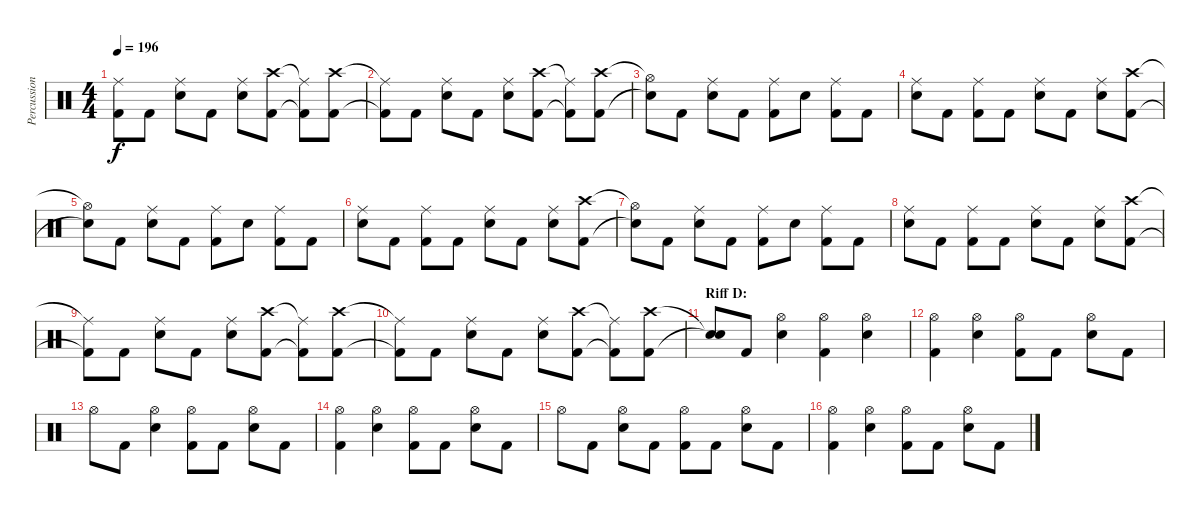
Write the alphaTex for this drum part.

\track ("Percussion" "Percussion") {instrument percussion}
\staff {score}
\articulation defaults
\ts (4 4)
\tempo 196
\clef neutral
\ks c
("Ride (middle)"{t} "Kick (hit) 2"{t}).8{dy f} "Kick (hit) 2".8 ("Ride (middle)" "Snare (hit) 2").8 "Kick (hit) 2".8 ("Ride (middle)" "Snare (hit) 2").8 ("Crash high (hit)" "Kick (hit) 2").8 ("Ride (middle)"{t} "Kick (hit) 2"{t}).8 ("Crash high (hit)" "Kick (hit) 2").8 |
("Ride (middle)"{t} "Kick (hit) 2"{t}).8 "Kick (hit) 2".8 ("Ride (middle)" "Snare (hit) 2").8 "Kick (hit) 2".8 ("Ride (middle)" "Snare (hit) 2").8 ("Crash high (hit)" "Kick (hit) 2").8 ("Ride (middle)"{t} "Kick (hit) 2"{t}).8 ("Crash high (hit)" "Kick (hit) 2").8 |
("Hi-Hat (open)"{t} "Snare (hit)"{t}).8 "Kick (hit) 2".8 ("Ride (middle)" "Snare (hit) 2").8 "Kick (hit) 2".8 ("Ride (middle)" "Kick (hit) 2").8 "Snare (hit) 2".8 ("Ride (middle)" "Kick (hit) 2").8 "Kick (hit) 2".8 |
("Ride (middle)" "Snare (hit) 2").8 "Kick (hit) 2".8 ("Ride (middle)" "Kick (hit) 2").8 "Kick (hit) 2".8 ("Ride (middle)" "Snare (hit) 2").8 "Kick (hit) 2".8 ("Ride (middle)" "Snare (hit) 2").8 ("Crash high (hit)" "Kick (hit) 2").8 |
("Hi-Hat (open)"{t} "Snare (hit)"{t}).8 "Kick (hit) 2".8 ("Ride (middle)" "Snare (hit) 2").8 "Kick (hit) 2".8 ("Ride (middle)" "Kick (hit) 2").8 "Snare (hit) 2".8 ("Ride (middle)" "Kick (hit) 2").8 "Kick (hit) 2".8 |
("Ride (middle)" "Snare (hit) 2").8 "Kick (hit) 2".8 ("Ride (middle)" "Kick (hit) 2").8 "Kick (hit) 2".8 ("Ride (middle)" "Snare (hit) 2").8 "Kick (hit) 2".8 ("Ride (middle)" "Snare (hit) 2").8 ("Crash high (hit)" "Kick (hit) 2").8 |
("Hi-Hat (open)"{t} "Snare (hit)"{t}).8 "Kick (hit) 2".8 ("Ride (middle)" "Snare (hit) 2").8 "Kick (hit) 2".8 ("Ride (middle)" "Kick (hit) 2").8 "Snare (hit) 2".8 ("Ride (middle)" "Kick (hit) 2").8 "Kick (hit) 2".8 |
("Ride (middle)" "Snare (hit) 2").8 "Kick (hit) 2".8 ("Ride (middle)" "Kick (hit) 2").8 "Kick (hit) 2".8 ("Ride (middle)" "Snare (hit) 2").8 "Kick (hit) 2".8 ("Ride (middle)" "Snare (hit) 2").8 ("Crash high (hit)" "Kick (hit) 2").8 |
("Ride (middle)"{t} "Kick (hit) 2"{t}).8 "Kick (hit) 2".8 ("Ride (middle)" "Snare (hit) 2").8 "Kick (hit) 2".8 ("Ride (middle)" "Snare (hit) 2").8 ("Crash high (hit)" "Kick (hit) 2").8 ("Ride (middle)"{t} "Kick (hit) 2"{t}).8 ("Crash high (hit)" "Kick (hit) 2").8 |
("Ride (middle)"{t} "Kick (hit) 2"{t}).8 "Kick (hit) 2".8 ("Ride (middle)" "Snare (hit) 2").8 "Kick (hit) 2".8 ("Ride (middle)" "Snare (hit) 2").8 ("Crash high (hit)" "Kick (hit) 2").8 ("Ride (middle)"{t} "Kick (hit) 2"{t}).8 ("Crash high (hit)" "Kick (hit) 2").8 |
\section ("" "Riff D:")
("Snare (hit)"{t} "Snare (hit)"{t}).8 "Kick (hit) 2".8 ("Hi-Hat (open)" "Snare (hit) 2").4 ("Hi-Hat (open)" "Kick (hit) 2").4 ("Hi-Hat (open)" "Snare (hit) 2").4 |
("Hi-Hat (open)" "Kick (hit) 2").4 ("Hi-Hat (open)" "Snare (hit) 2").4 ("Hi-Hat (open)" "Kick (hit) 2").8 "Kick (hit) 2".8 ("Hi-Hat (open)" "Snare (hit) 2").8 "Kick (hit) 2".8 |
"Hi-Hat (open)".8 "Kick (hit) 2".8 ("Hi-Hat (open)" "Snare (hit) 2").4 ("Hi-Hat (open)" "Kick (hit) 2").8 "Kick (hit) 2".8 ("Hi-Hat (open)" "Snare (hit) 2").8 "Kick (hit) 2".8 |
("Hi-Hat (open)" "Kick (hit) 2").4 ("Hi-Hat (open)" "Snare (hit) 2").4 ("Hi-Hat (open)" "Kick (hit) 2").8 "Kick (hit) 2".8 ("Hi-Hat (open)" "Snare (hit) 2").8 "Kick (hit) 2".8 |
"Hi-Hat (open)".8 "Kick (hit) 2".8 ("Hi-Hat (open)" "Snare (hit) 2").8 "Kick (hit) 2".8 ("Hi-Hat (open)" "Kick (hit) 2").8 "Kick (hit) 2".8 ("Hi-Hat (open)" "Snare (hit) 2").8 "Kick (hit) 2".8 |
("Hi-Hat (open)" "Kick (hit) 2").4 ("Hi-Hat (open)" "Snare (hit) 2").4 ("Hi-Hat (open)" "Kick (hit) 2").8 "Kick (hit) 2".8 ("Hi-Hat (open)" "Snare (hit) 2").8 "Kick (hit) 2".8
